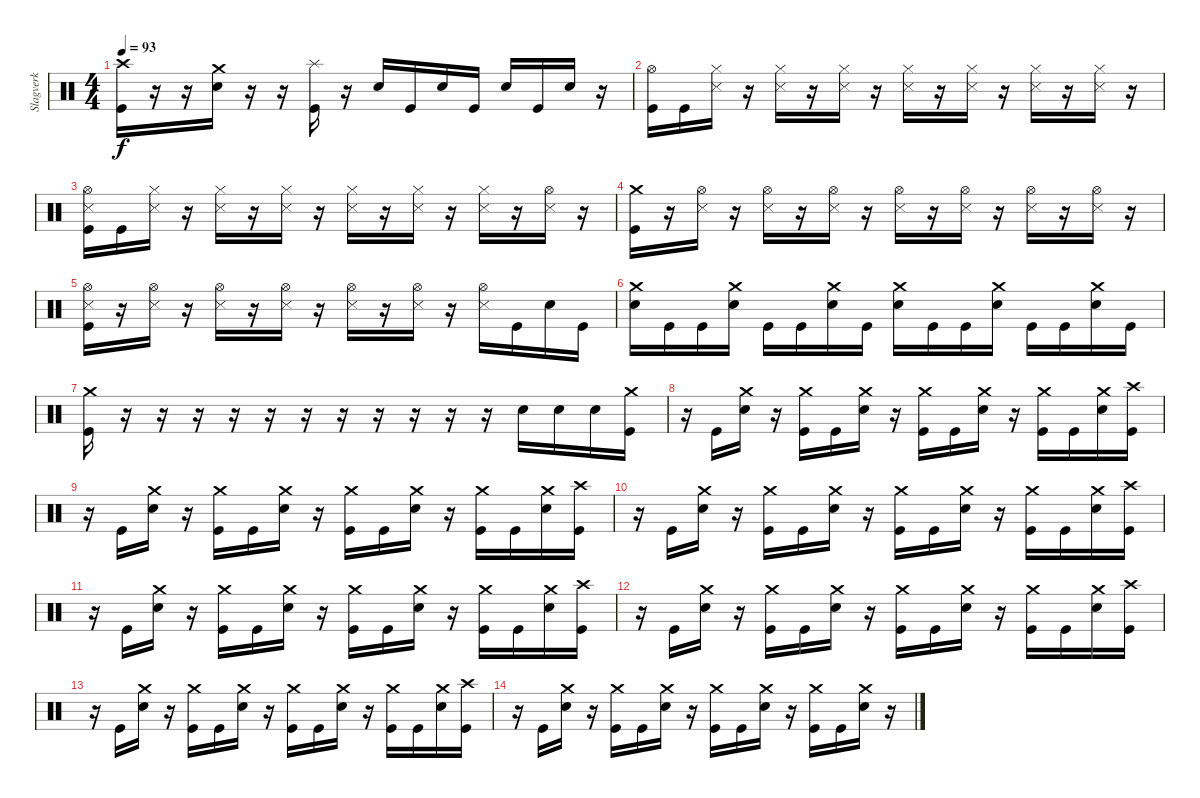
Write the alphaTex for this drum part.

\track ("Slagverk" "Slagverk") {instrument percussion}
\staff {score}
\articulation defaults
\ts (4 4)
\tempo 93
\clef neutral
\ks c
("Crash high (hit)" "Kick (hit)").16{dy f} r.16 r.16 ("Crash medium (hit)" "Electric Snare (hit)").16 r.16 r.16 ("Splash (hit)" "Kick (hit)").16 r.16 "Electric Snare (hit)".16 "Kick (hit)".16 "Electric Snare (hit)".16 "Kick (hit)".16 "Electric Snare (hit)".16 "Kick (hit)".16 "Electric Snare (hit)".16 r.16 |
("Hi-Hat (open)" "Kick (hit)").16 "Kick (hit)".16 ("Hi-Hat (closed)" "Snare (side stick) 3").16 r.16 ("Hi-Hat (closed)" "Snare (side stick) 3").16 r.16 ("Hi-Hat (closed)" "Snare (side stick) 3").16 r.16 ("Hi-Hat (closed)" "Snare (side stick) 3").16 r.16 ("Hi-Hat (closed)" "Snare (side stick) 3").16 r.16 ("Hi-Hat (closed)" "Snare (side stick) 3").16 r.16 ("Hi-Hat (closed)" "Snare (side stick) 3").16 r.16 |
("Hi-Hat (open)" "Snare (side stick) 3" "Kick (hit)").16 "Kick (hit)".16 ("Hi-Hat (closed)" "Snare (side stick) 3").16 r.16 ("Hi-Hat (closed)" "Snare (side stick) 3").16 r.16 ("Hi-Hat (closed)" "Snare (side stick) 3").16 r.16 ("Hi-Hat (closed)" "Snare (side stick) 3").16 r.16 ("Hi-Hat (closed)" "Snare (side stick) 3").16 r.16 ("Hi-Hat (closed)" "Snare (side stick) 3").16 r.16 ("Hi-Hat (open)" "Snare (side stick) 3").16 r.16 |
("Crash medium (hit)" "Kick (hit)").16 r.16 ("Hi-Hat (open)" "Snare (side stick) 3").16 r.16 ("Hi-Hat (open)" "Snare (side stick) 3").16 r.16 ("Hi-Hat (open)" "Snare (side stick) 3").16 r.16 ("Hi-Hat (open)" "Snare (side stick) 3").16 r.16 ("Hi-Hat (open)" "Snare (side stick) 3").16 r.16 ("Hi-Hat (open)" "Snare (side stick) 3").16 r.16 ("Hi-Hat (open)" "Snare (side stick) 3").16 r.16 |
("Hi-Hat (open)" "Snare (side stick) 3" "Kick (hit)").16 r.16 ("Hi-Hat (open)" "Snare (side stick) 3").16 r.16 ("Hi-Hat (open)" "Snare (side stick) 3").16 r.16 ("Hi-Hat (open)" "Snare (side stick) 3").16 r.16 ("Hi-Hat (open)" "Snare (side stick) 3").16 r.16 ("Hi-Hat (open)" "Snare (side stick) 3").16 r.16 ("Hi-Hat (open)" "Snare (side stick) 3").16 "Kick (hit)".16 "Electric Snare (hit)".16 "Kick (hit)".16 |
("Crash medium (hit)" "Electric Snare (hit)").16 "Kick (hit)".16 "Kick (hit)".16 ("Crash medium (hit)" "Electric Snare (hit)").16 "Kick (hit)".16 "Kick (hit)".16 ("Crash medium (hit)" "Electric Snare (hit)").16 "Kick (hit)".16 ("Crash medium (hit)" "Electric Snare (hit)").16 "Kick (hit)".16 "Kick (hit)".16 ("Crash medium (hit)" "Electric Snare (hit)").16 "Kick (hit)".16 "Kick (hit)".16 ("Crash medium (hit)" "Electric Snare (hit)").16 "Kick (hit)".16 |
("Crash medium (hit)" "Kick (hit)").16 r.16 r.16 r.16 r.16 r.16 r.16 r.16 r.16 r.16 r.16 r.16 "Electric Snare (hit)".16 "Electric Snare (hit)".16 "Electric Snare (hit)".16 ("Crash medium (hit)" "Kick (hit)").16 |
r.16 "Kick (hit)".16 ("Crash medium (hit)" "Electric Snare (hit)").16 r.16 ("Crash medium (hit)" "Kick (hit)").16 "Kick (hit)".16 ("Crash medium (hit)" "Electric Snare (hit)").16 r.16 ("Crash medium (hit)" "Kick (hit)").16 "Kick (hit)".16 ("Crash medium (hit)" "Electric Snare (hit)").16 r.16 ("Crash medium (hit)" "Kick (hit)").16 "Kick (hit)".16 ("Crash medium (hit)" "Electric Snare (hit)").16 ("Crash high (hit)" "Kick (hit)").16 |
r.16 "Kick (hit)".16 ("Crash medium (hit)" "Electric Snare (hit)").16 r.16 ("Crash medium (hit)" "Kick (hit)").16 "Kick (hit)".16 ("Crash medium (hit)" "Electric Snare (hit)").16 r.16 ("Crash medium (hit)" "Kick (hit)").16 "Kick (hit)".16 ("Crash medium (hit)" "Electric Snare (hit)").16 r.16 ("Crash medium (hit)" "Kick (hit)").16 "Kick (hit)".16 ("Crash medium (hit)" "Electric Snare (hit)").16 ("Crash high (hit)" "Kick (hit)").16 |
r.16 "Kick (hit)".16 ("Crash medium (hit)" "Electric Snare (hit)").16 r.16 ("Crash medium (hit)" "Kick (hit)").16 "Kick (hit)".16 ("Crash medium (hit)" "Electric Snare (hit)").16 r.16 ("Crash medium (hit)" "Kick (hit)").16 "Kick (hit)".16 ("Crash medium (hit)" "Electric Snare (hit)").16 r.16 ("Crash medium (hit)" "Kick (hit)").16 "Kick (hit)".16 ("Crash medium (hit)" "Electric Snare (hit)").16 ("Crash high (hit)" "Kick (hit)").16 |
r.16 "Kick (hit)".16 ("Crash medium (hit)" "Electric Snare (hit)").16 r.16 ("Crash medium (hit)" "Kick (hit)").16 "Kick (hit)".16 ("Crash medium (hit)" "Electric Snare (hit)").16 r.16 ("Crash medium (hit)" "Kick (hit)").16 "Kick (hit)".16 ("Crash medium (hit)" "Electric Snare (hit)").16 r.16 ("Crash medium (hit)" "Kick (hit)").16 "Kick (hit)".16 ("Crash medium (hit)" "Electric Snare (hit)").16 ("Crash high (hit)" "Kick (hit)").16 |
r.16 "Kick (hit)".16 ("Crash medium (hit)" "Electric Snare (hit)").16 r.16 ("Crash medium (hit)" "Kick (hit)").16 "Kick (hit)".16 ("Crash medium (hit)" "Electric Snare (hit)").16 r.16 ("Crash medium (hit)" "Kick (hit)").16 "Kick (hit)".16 ("Crash medium (hit)" "Electric Snare (hit)").16 r.16 ("Crash medium (hit)" "Kick (hit)").16 "Kick (hit)".16 ("Crash medium (hit)" "Electric Snare (hit)").16 ("Crash high (hit)" "Kick (hit)").16 |
r.16 "Kick (hit)".16 ("Crash medium (hit)" "Electric Snare (hit)").16 r.16 ("Crash medium (hit)" "Kick (hit)").16 "Kick (hit)".16 ("Crash medium (hit)" "Electric Snare (hit)").16 r.16 ("Crash medium (hit)" "Kick (hit)").16 "Kick (hit)".16 ("Crash medium (hit)" "Electric Snare (hit)").16 r.16 ("Crash medium (hit)" "Kick (hit)").16 "Kick (hit)".16 ("Crash medium (hit)" "Electric Snare (hit)").16 ("Crash high (hit)" "Kick (hit)").16 |
r.16 "Kick (hit)".16 ("Crash medium (hit)" "Electric Snare (hit)").16 r.16 ("Crash medium (hit)" "Kick (hit)").16 "Kick (hit)".16 ("Crash medium (hit)" "Electric Snare (hit)").16 r.16 ("Crash medium (hit)" "Kick (hit)").16 "Kick (hit)".16 ("Crash medium (hit)" "Electric Snare (hit)").16 r.16 ("Crash medium (hit)" "Kick (hit)").16 "Kick (hit)".16 ("Crash medium (hit)" "Electric Snare (hit)").16 r.16
